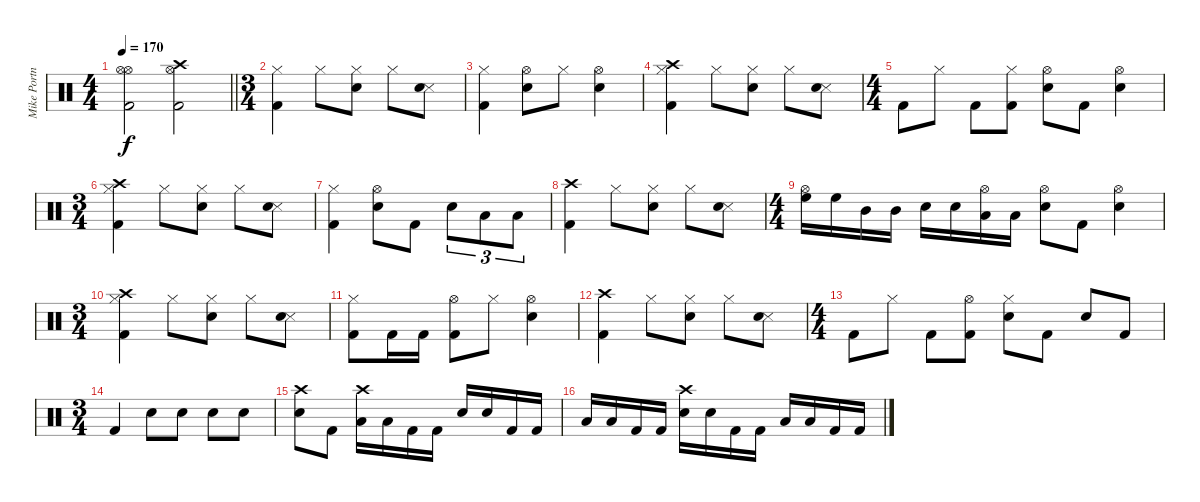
\track ("Mike Portnoy Drums/Percussion" "Mike Portn") {instrument percussion}
\staff {score}
\articulation defaults
\ts (4 4)
\tempo 170
\clef neutral
\barLineRight lightlight
\ks c
("Hi-Hat (open)" "Hi-Hat (open)" "Kick (hit) 2").2{dy f} ("Crash high (hit)" "Hi-Hat (open)" "Kick (hit) 2").2 |
\ts (3 4)
\section ("" "")
("Hi-Hat (closed)" "Kick (hit) 2").4 "Hi-Hat (closed)".8 ("Snare (hit) 2" "Hi-Hat (closed)").8 "Hi-Hat (closed)".8 ("Snare (side stick) 3" "Snare (hit) 2").8 |
("Kick (hit) 2" "Hi-Hat (closed)").4 ("Hi-Hat (open)" "Snare (hit) 2").8 "Hi-Hat (closed)".8 ("Hi-Hat (open)" "Snare (hit) 2").4 |
("Crash high (hit)" "Hi-Hat (closed)" "Kick (hit) 2").4 "Hi-Hat (closed)".8 ("Snare (hit) 2" "Hi-Hat (closed)").8 "Hi-Hat (closed)".8 ("Snare (side stick) 3" "Snare (hit) 2").8 |
\ts (4 4)
"Kick (hit) 2".8 "Hi-Hat (closed)".8 "Kick (hit) 2".8 ("Hi-Hat (closed)" "Kick (hit) 2").8 ("Hi-Hat (open)" "Snare (hit) 2").8 "Kick (hit) 2".8 ("Hi-Hat (open)" "Snare (hit) 2").4 |
\ts (3 4)
("Crash high (hit)" "Hi-Hat (closed)" "Kick (hit) 2").4 "Hi-Hat (closed)".8 ("Snare (hit) 2" "Hi-Hat (closed)").8 "Hi-Hat (closed)".8 ("Snare (side stick) 3" "Snare (hit) 2").8 |
("Kick (hit) 2" "Hi-Hat (closed)").4 ("Hi-Hat (open)" "Snare (hit) 2").8 "Kick (hit) 2".8 "Snare (hit) 2".8{tu (3 2)} "Low Tom (hit)".8{tu (3 2)} "Low Floor Tom (hit)".8{tu (3 2)} |
("Crash high (hit)" "Kick (hit) 2").4 "Hi-Hat (closed)".8 ("Snare (hit) 2" "Hi-Hat (closed)").8 "Hi-Hat (closed)".8 ("Snare (side stick) 3" "Snare (hit) 2").8 |
\ts (4 4)
("High Floor Tom (hit)" "Hi-Hat (open)").16 "High Floor Tom (hit)".16 "Mid Tom (hit)".16 "Mid Tom (hit)".16 "Snare (hit) 2".16 "Snare (hit) 2".16 ("Low Tom (hit)" "Hi-Hat (open)").16 "Low Tom (hit)".16 ("Hi-Hat (open)" "Snare (hit) 2").8 "Kick (hit) 2".8 ("Hi-Hat (open)" "Snare (hit) 2").4 |
\ts (3 4)
("Crash high (hit)" "Hi-Hat (closed)" "Kick (hit) 2").4 "Hi-Hat (closed)".8 ("Snare (hit) 2" "Hi-Hat (closed)").8 "Hi-Hat (closed)".8 ("Snare (side stick) 3" "Snare (hit) 2").8 |
("Kick (hit) 2" "Hi-Hat (closed)").8 "Kick (hit) 2".16 "Kick (hit) 2".16 ("Hi-Hat (open)" "Kick (hit) 2").8 "Hi-Hat (closed)".8 ("Hi-Hat (open)" "Snare (hit) 2").4 |
("Crash high (hit)" "Kick (hit) 2").4 "Hi-Hat (closed)".8 ("Snare (hit) 2" "Hi-Hat (closed)").8 "Hi-Hat (closed)".8 ("Snare (side stick) 3" "Snare (hit) 2").8 |
\ts (4 4)
"Kick (hit) 2".8 "Hi-Hat (closed)".8 "Kick (hit) 2".8 ("Hi-Hat (open)" "Kick (hit) 2").8 ("Hi-Hat (closed)" "Snare (hit) 2").8 "Kick (hit) 2".8 "Snare (hit) 2".8 "Kick (hit) 2".8 |
\ts (3 4)
"Kick (hit) 2".4 "Snare (hit) 2".8 "Snare (hit) 2".8 "Snare (hit) 2".8 "Snare (hit) 2".8 |
("Crash high (hit)" "Snare (hit) 2").8 "Kick (hit) 2".8 ("Crash high (hit)" "Low Tom (hit)").16 "Low Floor Tom (hit)".16 "Kick (hit) 2".16 "Kick (hit) 2".16 "Snare (hit) 2".16 "Snare (hit) 2".16 "Kick (hit) 2".16 "Kick (hit) 2".16 |
"Low Tom (hit)".16 "Low Floor Tom (hit)".16 "Kick (hit) 2".16 "Kick (hit) 2".16 ("Crash high (hit)" "Snare (hit) 2").16 "Snare (hit) 2".16 "Kick (hit) 2".16 "Kick (hit) 2".16 "Low Tom (hit)".16 "Low Floor Tom (hit)".16 "Kick (hit) 2".16 "Kick (hit) 2".16
